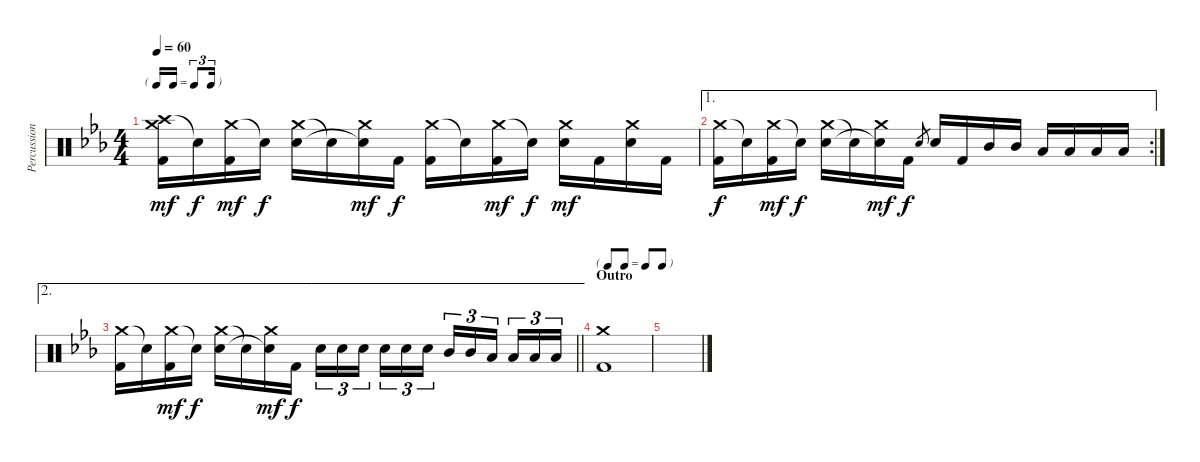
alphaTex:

\track ("Percussioni" "Percussion") {instrument percussion}
\staff {score}
\articulation defaults
\ts (4 4)
\tf triplet16th
\tempo 60
\clef neutral
\ks cminor
("Crash high (hit)" "Crash medium (hit)" "Kick (hit) 2").16{dy mf} "Snare (hit)"{t}.16{dy f} ("Crash medium (hit)" "Kick (hit) 2").16{dy mf} "Snare (hit)"{t}.16{dy f} ("Crash medium (hit)" "Snare (hit) 2").16 "Snare (hit)"{t}.16 ("Crash medium (hit)" "Snare (hit)"{t}).16{dy mf} "Kick (hit) 2".16{dy f} ("Crash medium (hit)" "Kick (hit) 2").16 "Snare (hit)"{t}.16 ("Crash medium (hit)" "Kick (hit) 2").16{dy mf} "Snare (hit)"{t}.16{dy f} ("Crash medium (hit)" "Snare (hit) 2").16{dy mf} "Kick (hit) 2".16 ("Crash medium (hit)" "Snare (hit) 2").16 "Kick (hit) 2".16 |
\ae 1
\rc 2
("Crash medium (hit)" "Kick (hit) 2").16{dy f} "Snare (hit)"{t}.16 ("Crash medium (hit)" "Kick (hit) 2").16{dy mf} "Snare (hit)"{t}.16{dy f} ("Crash medium (hit)" "Snare (hit) 2").16 "Snare (hit)"{t}.16 ("Crash medium (hit)" "Snare (hit)"{t}).16{dy mf} "Kick (hit) 2".16{dy f} "Snare (hit) 2".8{gr} "Snare (hit) 2".16 "Kick (hit) 2".16 "Mid Tom (hit)".16 "Mid Tom (hit)".16 "Low Tom (hit)".16 "Low Tom (hit)".16 "Low Floor Tom (hit)".16 "Low Floor Tom (hit)".16 |
\ae 2
\barLineRight lightlight
("Crash medium (hit)" "Kick (hit) 2").16 "Snare (hit)"{t}.16 ("Crash medium (hit)" "Kick (hit) 2").16{dy mf} "Snare (hit)"{t}.16{dy f} ("Crash medium (hit)" "Snare (hit) 2").16 "Snare (hit)"{t}.16 ("Crash medium (hit)" "Snare (hit)"{t}).16{dy mf} "Kick (hit) 2".16{dy f} "Snare (hit) 2".16{tu (3 2)} "Snare (hit) 2".16{tu (3 2)} "Snare (hit) 2".16{tu (3 2) beam splitsecondary} "Snare (hit) 2".16{tu (3 2)} "Snare (hit) 2".16{tu (3 2)} "Snare (hit) 2".16{tu (3 2)} "Mid Tom (hit)".16{tu (3 2)} "Mid Tom (hit)".16{tu (3 2)} "Low Tom (hit)".16{tu (3 2) beam splitsecondary} "Low Tom (hit)".16{tu (3 2)} "Low Floor Tom (hit)".16{tu (3 2)} "Low Floor Tom (hit)".16{tu (3 2)} |
\tf none
\section ("" "Outro")
\ks eb
("Crash medium (hit)" "Kick (hit) 2").1 |
\ks cminor
